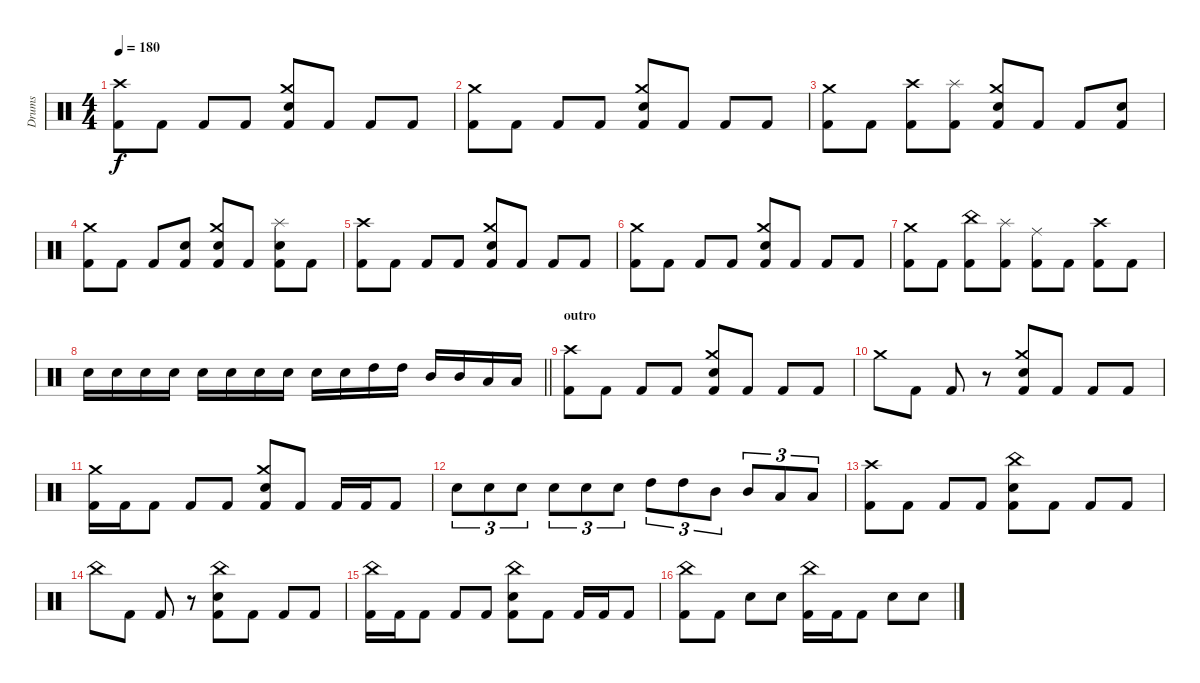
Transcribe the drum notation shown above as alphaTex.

\track ("Drums" "Drums") {instrument percussion}
\staff {score}
\articulation defaults
\ts (4 4)
\tempo 180
\clef neutral
\ks c
("Crash high (hit)" "Kick (hit) 2").8{dy f} "Kick (hit) 2".8 "Kick (hit) 2".8 "Kick (hit) 2".8 ("Crash medium (hit)" "Electric Snare (hit)" "Kick (hit) 2").8 "Kick (hit) 2".8 "Kick (hit) 2".8 "Kick (hit) 2".8 |
("Crash medium (hit)" "Kick (hit) 2").8 "Kick (hit) 2".8 "Kick (hit) 2".8 "Kick (hit) 2".8 ("Crash medium (hit)" "Electric Snare (hit)" "Kick (hit) 2").8 "Kick (hit) 2".8 "Kick (hit) 2".8 "Kick (hit) 2".8 |
("Crash medium (hit)" "Kick (hit) 2").8 "Kick (hit) 2".8 ("Crash high (hit)" "Kick (hit) 2").8 ("Splash (hit)" "Kick (hit) 2").8 ("Crash medium (hit)" "Electric Snare (hit)" "Kick (hit) 2").8 "Kick (hit) 2".8 "Kick (hit) 2".8 ("Electric Snare (hit)" "Kick (hit) 2").8 |
("Crash medium (hit)" "Kick (hit) 2").8 "Kick (hit) 2".8 "Kick (hit) 2".8 ("Electric Snare (hit)" "Kick (hit) 2").8 ("Crash medium (hit)" "Electric Snare (hit)" "Kick (hit) 2").8 "Kick (hit) 2".8 ("Splash (hit)" "Electric Snare (hit)" "Kick (hit) 2").8 "Kick (hit) 2".8 |
("Crash high (hit)" "Kick (hit) 2").8 "Kick (hit) 2".8 "Kick (hit) 2".8 "Kick (hit) 2".8 ("Crash medium (hit)" "Electric Snare (hit)" "Kick (hit) 2").8 "Kick (hit) 2".8 "Kick (hit) 2".8 "Kick (hit) 2".8 |
("Crash medium (hit)" "Kick (hit) 2").8 "Kick (hit) 2".8 "Kick (hit) 2".8 "Kick (hit) 2".8 ("Crash medium (hit)" "Electric Snare (hit)" "Kick (hit) 2").8 "Kick (hit) 2".8 "Kick (hit) 2".8 "Kick (hit) 2".8 |
("Crash medium (hit)" "Kick (hit) 2").8 "Kick (hit) 2".8 ("China (hit)" "Kick (hit) 2").8 ("Splash (hit)" "Kick (hit) 2").8 ("Ride (middle)" "Kick (hit) 2").8 "Kick (hit) 2".8 ("Crash high (hit)" "Kick (hit) 2").8 "Kick (hit) 2".8 |
\barLineRight lightlight "Electric Snare (hit)".16 "Electric Snare (hit)".16 "Electric Snare (hit)".16 "Electric Snare (hit)".16 "Electric Snare (hit)".16 "Electric Snare (hit)".16 "Electric Snare (hit)".16 "Electric Snare (hit)".16 "Electric Snare (hit)".16 "Electric Snare (hit)".16 "High Tom (hit)".16 "High Tom (hit)".16 "Mid Tom (hit)".16 "Mid Tom (hit)".16 "Low Tom (hit)".16 "Low Tom (hit)".16
|
\section ("" "outro")
("Crash high (hit)" "Kick (hit) 2").8 "Kick (hit) 2".8 "Kick (hit) 2".8 "Kick (hit) 2".8 ("Crash medium (hit)" "Electric Snare (hit)" "Kick (hit) 2").8 "Kick (hit) 2".8 "Kick (hit) 2".8 "Kick (hit) 2".8 |
"Crash medium (hit)".8 "Kick (hit) 2".8 "Kick (hit) 2".8 r.8 ("Crash medium (hit)" "Electric Snare (hit)" "Kick (hit) 2").8 "Kick (hit) 2".8 "Kick (hit) 2".8 "Kick (hit) 2".8 |
("Crash medium (hit)" "Kick (hit) 2").16 "Kick (hit) 2".16 "Kick (hit) 2".8 "Kick (hit) 2".8 "Kick (hit) 2".8 ("Crash medium (hit)" "Electric Snare (hit)" "Kick (hit) 2").8 "Kick (hit) 2".8 "Kick (hit) 2".16 "Kick (hit) 2".16 "Kick (hit) 2".8 |
"Electric Snare (hit)".8{tu (3 2)} "Electric Snare (hit)".8{tu (3 2)} "Electric Snare (hit)".8{tu (3 2)} "Electric Snare (hit)".8{tu (3 2)} "Electric Snare (hit)".8{tu (3 2)} "Electric Snare (hit)".8{tu (3 2)} "High Tom (hit)".8{tu (3 2)} "High Tom (hit)".8{tu (3 2)} "Mid Tom (hit)".8{tu (3 2)} "Mid Tom (hit)".8{tu (3 2)} "Low Tom (hit)".8{tu (3 2)} "Low Tom (hit)".8{tu (3 2)} |
("Crash high (hit)" "Kick (hit) 2").8 "Kick (hit) 2".8 "Kick (hit) 2".8 "Kick (hit) 2".8 ("China (hit)" "Electric Snare (hit)" "Kick (hit) 2").8 "Kick (hit) 2".8 "Kick (hit) 2".8 "Kick (hit) 2".8 |
"China (hit)".8 "Kick (hit) 2".8 "Kick (hit) 2".8 r.8 ("China (hit)" "Electric Snare (hit)" "Kick (hit) 2").8 "Kick (hit) 2".8 "Kick (hit) 2".8 "Kick (hit) 2".8 |
("China (hit)" "Kick (hit) 2").16 "Kick (hit) 2".16 "Kick (hit) 2".8 "Kick (hit) 2".8 "Kick (hit) 2".8 ("China (hit)" "Electric Snare (hit)" "Kick (hit) 2").8 "Kick (hit) 2".8 "Kick (hit) 2".16 "Kick (hit) 2".16 "Kick (hit) 2".8 |
("China (hit)" "Kick (hit) 2").8 "Kick (hit) 2".8 "Electric Snare (hit)".8 "Electric Snare (hit)".8 ("China (hit)" "Kick (hit) 2").16 "Kick (hit) 2".16 "Kick (hit) 2".8 "Electric Snare (hit)".8 "Electric Snare (hit)".8
